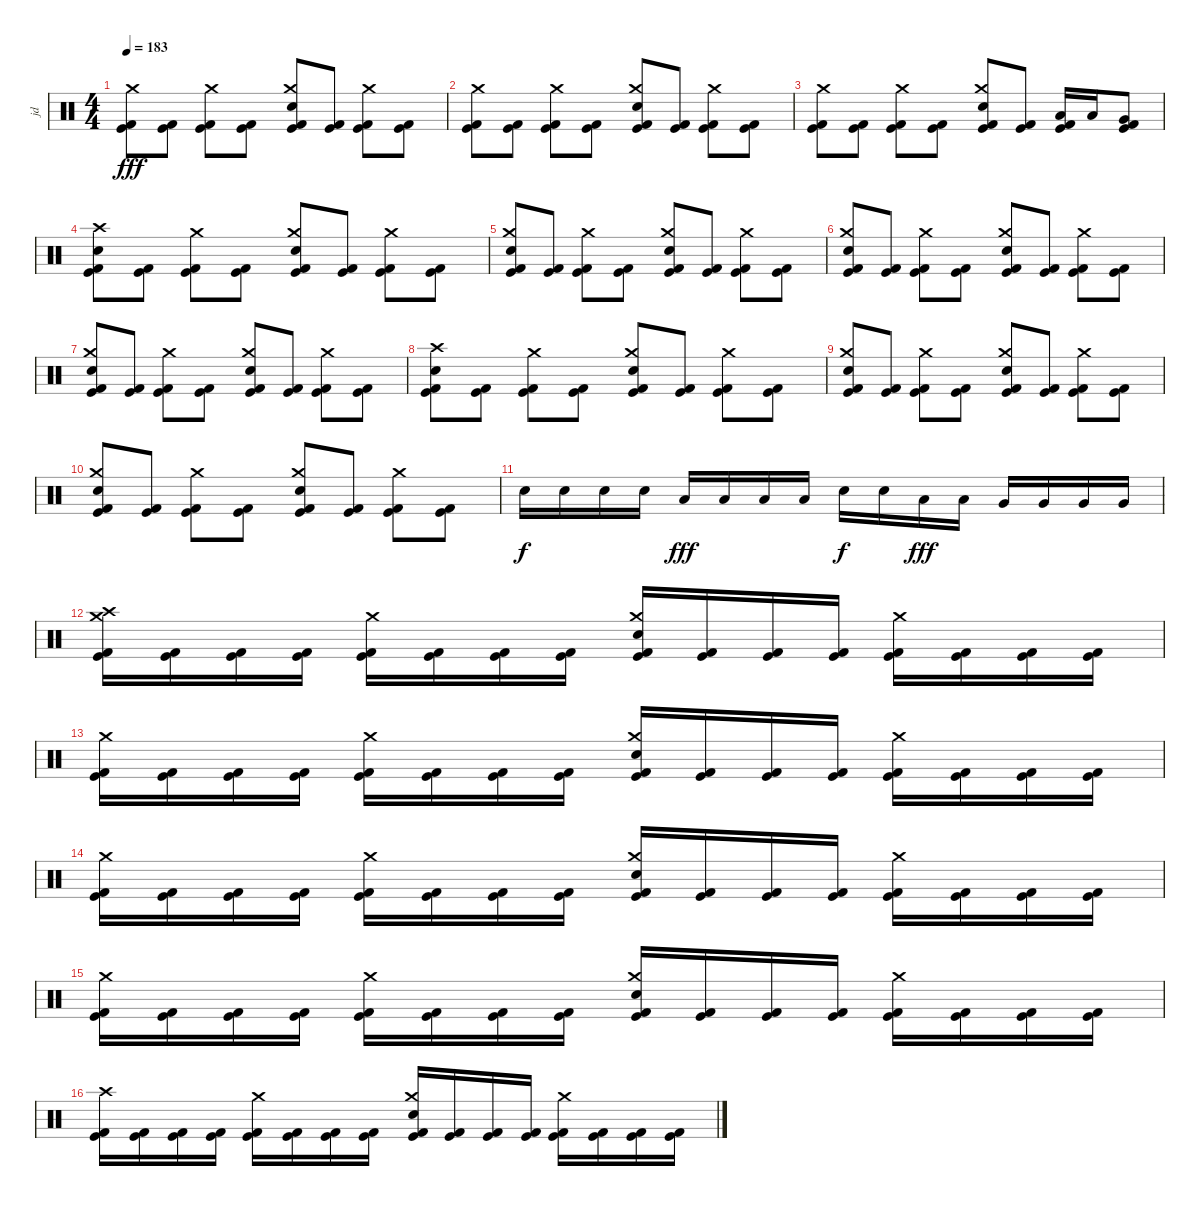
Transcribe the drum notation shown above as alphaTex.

\track ("jd" "jd") {instrument percussion}
\staff {score}
\articulation defaults
\ts (4 4)
\tempo 183
\clef neutral
\ks c
("Kick (hit)" "Kick (hit) 2" "Crash medium (hit)").8{dy fff} ("Kick (hit)" "Kick (hit) 2").8 ("Kick (hit)" "Kick (hit) 2" "Crash medium (hit)").8 ("Kick (hit)" "Kick (hit) 2").8 ("Kick (hit)" "Kick (hit) 2" "Electric Snare (hit)" "Crash medium (hit)").8 ("Kick (hit)" "Kick (hit) 2").8 ("Kick (hit)" "Kick (hit) 2" "Crash medium (hit)").8 ("Kick (hit)" "Kick (hit) 2").8 |
("Kick (hit)" "Kick (hit) 2" "Crash medium (hit)").8 ("Kick (hit)" "Kick (hit) 2").8 ("Kick (hit)" "Kick (hit) 2" "Crash medium (hit)").8 ("Kick (hit)" "Kick (hit) 2").8 ("Kick (hit)" "Kick (hit) 2" "Electric Snare (hit)" "Crash medium (hit)").8 ("Kick (hit)" "Kick (hit) 2").8 ("Kick (hit)" "Kick (hit) 2" "Crash medium (hit)").8 ("Kick (hit)" "Kick (hit) 2").8 |
("Kick (hit)" "Kick (hit) 2" "Crash medium (hit)").8 ("Kick (hit)" "Kick (hit) 2").8 ("Kick (hit)" "Kick (hit) 2" "Crash medium (hit)").8 ("Kick (hit)" "Kick (hit) 2").8 ("Kick (hit)" "Kick (hit) 2" "Electric Snare (hit)" "Crash medium (hit)").8 ("Kick (hit)" "Kick (hit) 2").8 ("Kick (hit)" "Kick (hit) 2" "Low Tom (hit)").16 "Low Tom (hit)".16 ("Kick (hit)" "Kick (hit) 2" "Very Low Tom (hit)").8 |
("Kick (hit)" "Kick (hit) 2" "Electric Snare (hit)" "Crash high (hit)").8 ("Kick (hit)" "Kick (hit) 2").8 ("Kick (hit)" "Kick (hit) 2" "Crash medium (hit)").8 ("Kick (hit)" "Kick (hit) 2").8 ("Kick (hit)" "Kick (hit) 2" "Electric Snare (hit)" "Crash medium (hit)").8 ("Kick (hit)" "Kick (hit) 2").8 ("Kick (hit)" "Kick (hit) 2" "Crash medium (hit)").8 ("Kick (hit)" "Kick (hit) 2").8 |
("Kick (hit)" "Kick (hit) 2" "Electric Snare (hit)" "Crash medium (hit)").8 ("Kick (hit)" "Kick (hit) 2").8 ("Kick (hit)" "Kick (hit) 2" "Crash medium (hit)").8 ("Kick (hit)" "Kick (hit) 2").8 ("Kick (hit)" "Kick (hit) 2" "Electric Snare (hit)" "Crash medium (hit)").8 ("Kick (hit)" "Kick (hit) 2").8 ("Kick (hit)" "Kick (hit) 2" "Crash medium (hit)").8 ("Kick (hit)" "Kick (hit) 2").8 |
("Kick (hit)" "Kick (hit) 2" "Electric Snare (hit)" "Crash medium (hit)").8 ("Kick (hit)" "Kick (hit) 2").8 ("Kick (hit)" "Kick (hit) 2" "Crash medium (hit)").8 ("Kick (hit)" "Kick (hit) 2").8 ("Kick (hit)" "Kick (hit) 2" "Electric Snare (hit)" "Crash medium (hit)").8 ("Kick (hit)" "Kick (hit) 2").8 ("Kick (hit)" "Kick (hit) 2" "Crash medium (hit)").8 ("Kick (hit)" "Kick (hit) 2").8 |
("Kick (hit)" "Kick (hit) 2" "Electric Snare (hit)" "Crash medium (hit)").8 ("Kick (hit)" "Kick (hit) 2").8 ("Kick (hit)" "Kick (hit) 2" "Crash medium (hit)").8 ("Kick (hit)" "Kick (hit) 2").8 ("Kick (hit)" "Kick (hit) 2" "Electric Snare (hit)" "Crash medium (hit)").8 ("Kick (hit)" "Kick (hit) 2").8 ("Kick (hit)" "Kick (hit) 2" "Crash medium (hit)").8 ("Kick (hit)" "Kick (hit) 2").8 |
("Kick (hit)" "Kick (hit) 2" "Electric Snare (hit)" "Crash high (hit)").8 ("Kick (hit)" "Kick (hit) 2").8 ("Kick (hit)" "Kick (hit) 2" "Crash medium (hit)").8 ("Kick (hit)" "Kick (hit) 2").8 ("Kick (hit)" "Kick (hit) 2" "Electric Snare (hit)" "Crash medium (hit)").8 ("Kick (hit)" "Kick (hit) 2").8 ("Kick (hit)" "Kick (hit) 2" "Crash medium (hit)").8 ("Kick (hit)" "Kick (hit) 2").8 |
("Kick (hit)" "Kick (hit) 2" "Electric Snare (hit)" "Crash medium (hit)").8 ("Kick (hit)" "Kick (hit) 2").8 ("Kick (hit)" "Kick (hit) 2" "Crash medium (hit)").8 ("Kick (hit)" "Kick (hit) 2").8 ("Kick (hit)" "Kick (hit) 2" "Electric Snare (hit)" "Crash medium (hit)").8 ("Kick (hit)" "Kick (hit) 2").8 ("Kick (hit)" "Kick (hit) 2" "Crash medium (hit)").8 ("Kick (hit)" "Kick (hit) 2").8 |
("Kick (hit)" "Kick (hit) 2" "Electric Snare (hit)" "Crash medium (hit)").8 ("Kick (hit)" "Kick (hit) 2").8 ("Kick (hit)" "Kick (hit) 2" "Crash medium (hit)").8 ("Kick (hit)" "Kick (hit) 2").8 ("Kick (hit)" "Kick (hit) 2" "Electric Snare (hit)" "Crash medium (hit)").8 ("Kick (hit)" "Kick (hit) 2").8 ("Kick (hit)" "Kick (hit) 2" "Crash medium (hit)").8 ("Kick (hit)" "Kick (hit) 2").8 |
"Electric Snare (hit)".16{dy f} "Electric Snare (hit)".16 "Electric Snare (hit)".16 "Electric Snare (hit)".16 "Low Tom (hit)".16{dy fff} "Low Tom (hit)".16 "Low Tom (hit)".16 "Low Tom (hit)".16 "Electric Snare (hit)".16{dy f} "Electric Snare (hit)".16 "Low Tom (hit)".16{dy fff} "Low Tom (hit)".16 "Very Low Tom (hit)".16 "Very Low Tom (hit)".16 "Very Low Tom (hit)".16 "Very Low Tom (hit)".16 |
("Kick (hit)" "Kick (hit) 2" "Crash high (hit)" "Crash medium (hit)").16 ("Kick (hit)" "Kick (hit) 2").16 ("Kick (hit)" "Kick (hit) 2").16 ("Kick (hit)" "Kick (hit) 2").16 ("Kick (hit)" "Kick (hit) 2" "Crash medium (hit)").16 ("Kick (hit)" "Kick (hit) 2").16 ("Kick (hit)" "Kick (hit) 2").16 ("Kick (hit)" "Kick (hit) 2").16 ("Kick (hit)" "Kick (hit) 2" "Electric Snare (hit)" "Crash medium (hit)").16 ("Kick (hit)" "Kick (hit) 2").16 ("Kick (hit)" "Kick (hit) 2").16 ("Kick (hit)" "Kick (hit) 2").16 ("Kick (hit)" "Kick (hit) 2" "Crash medium (hit)").16 ("Kick (hit)" "Kick (hit) 2").16 ("Kick (hit)" "Kick (hit) 2").16 ("Kick (hit)" "Kick (hit) 2").16 |
("Kick (hit)" "Kick (hit) 2" "Crash medium (hit)").16 ("Kick (hit)" "Kick (hit) 2").16 ("Kick (hit)" "Kick (hit) 2").16 ("Kick (hit)" "Kick (hit) 2").16 ("Kick (hit)" "Kick (hit) 2" "Crash medium (hit)").16 ("Kick (hit)" "Kick (hit) 2").16 ("Kick (hit)" "Kick (hit) 2").16 ("Kick (hit)" "Kick (hit) 2").16 ("Kick (hit)" "Kick (hit) 2" "Electric Snare (hit)" "Crash medium (hit)").16 ("Kick (hit)" "Kick (hit) 2").16 ("Kick (hit)" "Kick (hit) 2").16 ("Kick (hit)" "Kick (hit) 2").16 ("Kick (hit)" "Kick (hit) 2" "Crash medium (hit)").16 ("Kick (hit)" "Kick (hit) 2").16 ("Kick (hit)" "Kick (hit) 2").16 ("Kick (hit)" "Kick (hit) 2").16 |
("Kick (hit)" "Kick (hit) 2" "Crash medium (hit)").16 ("Kick (hit)" "Kick (hit) 2").16 ("Kick (hit)" "Kick (hit) 2").16 ("Kick (hit)" "Kick (hit) 2").16 ("Kick (hit)" "Kick (hit) 2" "Crash medium (hit)").16 ("Kick (hit)" "Kick (hit) 2").16 ("Kick (hit)" "Kick (hit) 2").16 ("Kick (hit)" "Kick (hit) 2").16 ("Kick (hit)" "Kick (hit) 2" "Electric Snare (hit)" "Crash medium (hit)").16 ("Kick (hit)" "Kick (hit) 2").16 ("Kick (hit)" "Kick (hit) 2").16 ("Kick (hit)" "Kick (hit) 2").16 ("Kick (hit)" "Kick (hit) 2" "Crash medium (hit)").16 ("Kick (hit)" "Kick (hit) 2").16 ("Kick (hit)" "Kick (hit) 2").16 ("Kick (hit)" "Kick (hit) 2").16 |
("Kick (hit)" "Kick (hit) 2" "Crash medium (hit)").16 ("Kick (hit)" "Kick (hit) 2").16 ("Kick (hit)" "Kick (hit) 2").16 ("Kick (hit)" "Kick (hit) 2").16 ("Kick (hit)" "Kick (hit) 2" "Crash medium (hit)").16 ("Kick (hit)" "Kick (hit) 2").16 ("Kick (hit)" "Kick (hit) 2").16 ("Kick (hit)" "Kick (hit) 2").16 ("Kick (hit)" "Kick (hit) 2" "Electric Snare (hit)" "Crash medium (hit)").16 ("Kick (hit)" "Kick (hit) 2").16 ("Kick (hit)" "Kick (hit) 2").16 ("Kick (hit)" "Kick (hit) 2").16 ("Kick (hit)" "Kick (hit) 2" "Crash medium (hit)").16 ("Kick (hit)" "Kick (hit) 2").16 ("Kick (hit)" "Kick (hit) 2").16 ("Kick (hit)" "Kick (hit) 2").16 |
("Kick (hit)" "Kick (hit) 2" "Crash high (hit)").16 ("Kick (hit)" "Kick (hit) 2").16 ("Kick (hit)" "Kick (hit) 2").16 ("Kick (hit)" "Kick (hit) 2").16 ("Kick (hit)" "Kick (hit) 2" "Crash medium (hit)").16 ("Kick (hit)" "Kick (hit) 2").16 ("Kick (hit)" "Kick (hit) 2").16 ("Kick (hit)" "Kick (hit) 2").16 ("Kick (hit)" "Kick (hit) 2" "Electric Snare (hit)" "Crash medium (hit)").16 ("Kick (hit)" "Kick (hit) 2").16 ("Kick (hit)" "Kick (hit) 2").16 ("Kick (hit)" "Kick (hit) 2").16 ("Kick (hit)" "Kick (hit) 2" "Crash medium (hit)").16 ("Kick (hit)" "Kick (hit) 2").16 ("Kick (hit)" "Kick (hit) 2").16 ("Kick (hit)" "Kick (hit) 2").16
